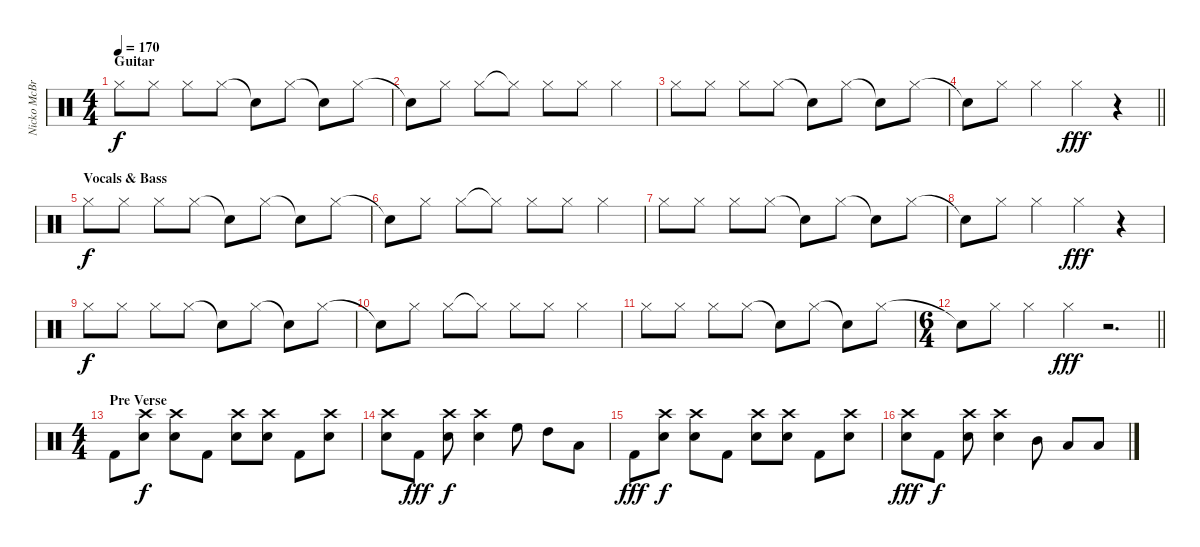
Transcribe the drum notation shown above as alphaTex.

\track ("Nicko McBrian" "Nicko McBr") {instrument percussion}
\staff {score}
\articulation defaults
\ts (4 4)
\section ("" "Guitar")
\tempo 170
\clef neutral
\ks c "Hi-Hat (closed)".8{dy f} "Hi-Hat (closed)".8 "Hi-Hat (closed)".8 "Hi-Hat (closed)".8 "Snare (hit)"{t}.8 "Hi-Hat (closed)".8 "Snare (hit)"{t}.8 "Hi-Hat (closed)".8
|
"Snare (hit)"{t}.8 "Hi-Hat (closed)".8 "Hi-Hat (closed)".8 "Hi-Hat (closed)"{t}.8 "Hi-Hat (closed)".8 "Hi-Hat (closed)".8 "Hi-Hat (closed)".4 |
"Hi-Hat (closed)".8 "Hi-Hat (closed)".8 "Hi-Hat (closed)".8 "Hi-Hat (closed)".8 "Snare (hit)"{t}.8 "Hi-Hat (closed)".8 "Snare (hit)"{t}.8 "Hi-Hat (closed)".8 |
\barLineRight lightlight "Snare (hit)"{t}.8 "Hi-Hat (closed)".8 "Hi-Hat (closed)".4 "Hi-Hat (closed)".4{dy fff}
r.4 |
\section ("" "Vocals & Bass")
"Hi-Hat (closed)".8{dy f} "Hi-Hat (closed)".8 "Hi-Hat (closed)".8 "Hi-Hat (closed)".8 "Snare (hit)"{t}.8 "Hi-Hat (closed)".8 "Snare (hit)"{t}.8 "Hi-Hat (closed)".8 |
"Snare (hit)"{t}.8 "Hi-Hat (closed)".8 "Hi-Hat (closed)".8 "Hi-Hat (closed)"{t}.8 "Hi-Hat (closed)".8 "Hi-Hat (closed)".8 "Hi-Hat (closed)".4 |
"Hi-Hat (closed)".8 "Hi-Hat (closed)".8 "Hi-Hat (closed)".8 "Hi-Hat (closed)".8 "Snare (hit)"{t}.8 "Hi-Hat (closed)".8 "Snare (hit)"{t}.8 "Hi-Hat (closed)".8 |
"Snare (hit)"{t}.8 "Hi-Hat (closed)".8 "Hi-Hat (closed)".4 "Hi-Hat (closed)".4{dy fff} r.4 |
"Hi-Hat (closed)".8{dy f} "Hi-Hat (closed)".8 "Hi-Hat (closed)".8 "Hi-Hat (closed)".8 "Snare (hit)"{t}.8 "Hi-Hat (closed)".8 "Snare (hit)"{t}.8 "Hi-Hat (closed)".8 |
"Snare (hit)"{t}.8 "Hi-Hat (closed)".8 "Hi-Hat (closed)".8 "Hi-Hat (closed)"{t}.8 "Hi-Hat (closed)".8 "Hi-Hat (closed)".8 "Hi-Hat (closed)".4 |
"Hi-Hat (closed)".8 "Hi-Hat (closed)".8 "Hi-Hat (closed)".8 "Hi-Hat (closed)".8 "Snare (hit)"{t}.8 "Hi-Hat (closed)".8 "Snare (hit)"{t}.8 "Hi-Hat (closed)".8 |
\ts (6 4)
\barLineRight lightlight "Snare (hit)"{t}.8 "Hi-Hat (closed)".8 "Hi-Hat (closed)".4 "Hi-Hat (closed)".4{dy fff}
r.2{d} |
\ts (4 4)
\section ("" "Pre Verse")
"Kick (hit) 2".8 ("Crash high (hit)" "Electric Snare (hit)").8{dy f} ("Crash high (hit)" "Electric Snare (hit)").8 "Kick (hit) 2".8 ("Crash high (hit)" "Electric Snare (hit)").8 ("Crash high (hit)" "Electric Snare (hit)").8 "Kick (hit) 2".8 ("Crash high (hit)" "Electric Snare (hit)").8 |
("Crash high (hit)" "Electric Snare (hit)").8 "Kick (hit) 2".8{dy fff} ("Crash high (hit)" "Electric Snare (hit)").8{dy f} ("Crash high (hit)" "Electric Snare (hit)").4 "High Floor Tom (hit)".8 "High Tom (hit)".8 "Low Tom (hit)".8 |
"Kick (hit) 2".8{dy fff} ("Crash high (hit)" "Electric Snare (hit)").8{dy f} ("Crash high (hit)" "Electric Snare (hit)").8 "Kick (hit) 2".8 ("Crash high (hit)" "Electric Snare (hit)").8 ("Crash high (hit)" "Electric Snare (hit)").8 "Kick (hit) 2".8 ("Crash high (hit)" "Electric Snare (hit)").8 |
("Crash high (hit)" "Electric Snare (hit)").8{dy fff} "Kick (hit) 2".8{dy f} ("Crash high (hit)" "Electric Snare (hit)").8 ("Crash high (hit)" "Electric Snare (hit)").4 "Mid Tom (hit)".8 "Low Tom (hit)".8 "Low Floor Tom (hit)".8
